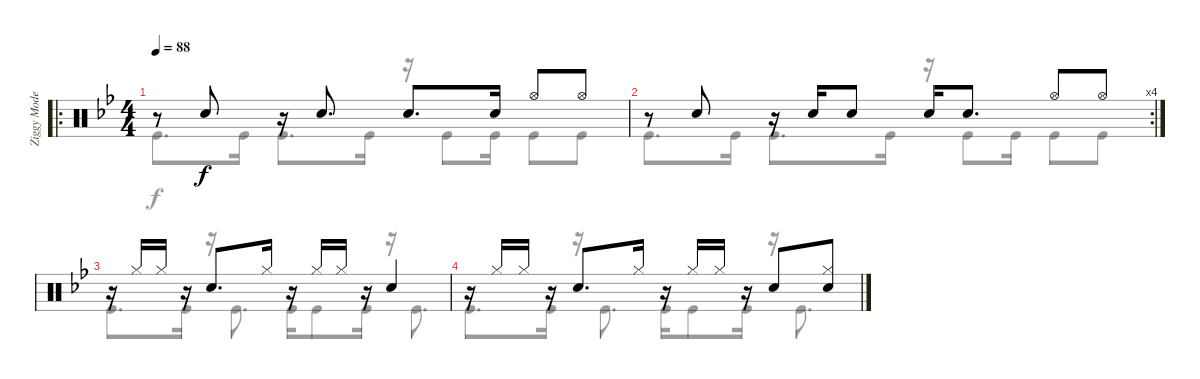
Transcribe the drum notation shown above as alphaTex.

\track ("Ziggy Modeliste" "Ziggy Mode") {instrument percussion}
\staff {score}
\articulation defaults
\voice
\ro
\ts (4 4)
\tempo 88
\clef neutral
\ks bb
r.8{dy f} "Snare (hit) 2".8 r.16 "Snare (hit) 2".8{d} "Snare (hit) 2".8{d} "Snare (hit) 2".16 "Hi-Hat (open)".8 "Hi-Hat (open)".8 |
\rc 4
r.8 "Snare (hit) 2".8 r.16 "Snare (hit) 2".16 "Snare (hit) 2".8 "Snare (hit) 2".16 "Snare (hit) 2".8{d} "Hi-Hat (open)".8 "Hi-Hat (open)".8 |
r.16 "Hi-Hat (closed)".16 "Hi-Hat (closed)".16 r.16 "Snare (hit) 2".8{d} "Hi-Hat (closed)".16 r.16 "Hi-Hat (closed)".16 "Hi-Hat (closed)".16 r.16 "Snare (hit) 2".4 |
r.16 "Hi-Hat (closed)".16 "Hi-Hat (closed)".16 r.16 "Snare (hit) 2".8{d} "Hi-Hat (closed)".16 r.16 "Hi-Hat (closed)".16 "Hi-Hat (closed)".16 r.16 "Snare (hit) 2".8 ("Hi-Hat (closed)" "Snare (hit) 2").8
\voice
\clef neutral
\ottava regular
\simile none
\ks bb "Kick (hit)".8{d dy f} "Kick (hit)".16 "Kick (hit)".8{d} "Kick (hit)".16
r.16 "Kick (hit)".8 "Kick (hit)".16 "Kick (hit)".8 "Kick (hit)".8 |
"Kick (hit)".8{d} "Kick (hit)".16 "Kick (hit)".8{d} "Kick (hit)".16 r.16 "Kick (hit)".8 "Kick (hit)".16 "Kick (hit)".8 "Kick (hit)".8 |
"Kick (hit)".8{d} "Kick (hit)".16 r.16 "Kick (hit)".8{d} "Kick (hit)".16 "Kick (hit)".8 "Kick (hit)".16 r.16 "Kick (hit)".8{d} |
"Kick (hit)".8{d} "Kick (hit)".16 r.16 "Kick (hit)".8{d} "Kick (hit)".16 "Kick (hit)".8 "Kick (hit)".16 r.16 "Kick (hit)".8{d}
